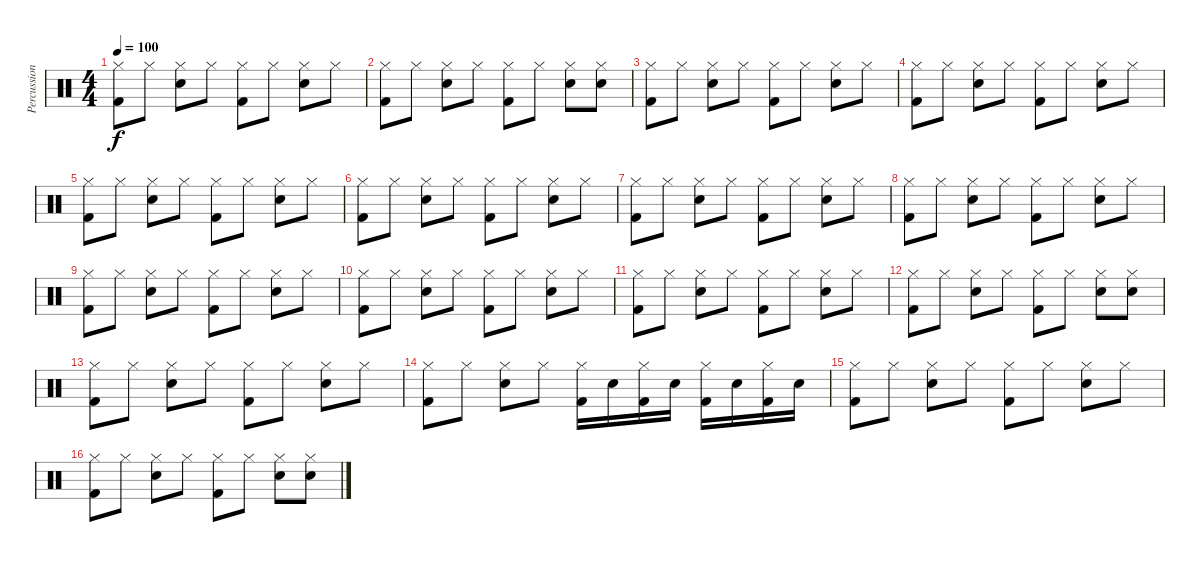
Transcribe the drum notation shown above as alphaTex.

\track ("Percussions" "Percussion") {instrument percussion}
\staff {score}
\articulation defaults
\ts (4 4)
\tempo 100
\clef neutral
\ks c
("Hi-Hat (closed)" "Kick (hit) 2").8{dy f} "Hi-Hat (closed)".8 ("Hi-Hat (closed)" "Snare (hit) 2").8 "Hi-Hat (closed)".8 ("Hi-Hat (closed)" "Kick (hit) 2").8 "Hi-Hat (closed)".8 ("Hi-Hat (closed)" "Snare (hit) 2").8 "Hi-Hat (closed)".8 |
("Hi-Hat (closed)" "Kick (hit) 2").8 "Hi-Hat (closed)".8 ("Hi-Hat (closed)" "Snare (hit) 2").8 "Hi-Hat (closed)".8 ("Hi-Hat (closed)" "Kick (hit) 2").8 "Hi-Hat (closed)".8 ("Hi-Hat (closed)" "Snare (hit) 2").8 ("Hi-Hat (closed)" "Snare (hit) 2").8 |
("Hi-Hat (closed)" "Kick (hit) 2").8 "Hi-Hat (closed)".8 ("Hi-Hat (closed)" "Snare (hit) 2").8 "Hi-Hat (closed)".8 ("Hi-Hat (closed)" "Kick (hit) 2").8 "Hi-Hat (closed)".8 ("Hi-Hat (closed)" "Snare (hit) 2").8 "Hi-Hat (closed)".8 |
("Hi-Hat (closed)" "Kick (hit) 2").8 "Hi-Hat (closed)".8 ("Hi-Hat (closed)" "Snare (hit) 2").8 "Hi-Hat (closed)".8 ("Hi-Hat (closed)" "Kick (hit) 2").8 "Hi-Hat (closed)".8 ("Hi-Hat (closed)" "Snare (hit) 2").8 "Hi-Hat (closed)".8 |
("Hi-Hat (closed)" "Kick (hit) 2").8 "Hi-Hat (closed)".8 ("Hi-Hat (closed)" "Snare (hit) 2").8 "Hi-Hat (closed)".8 ("Hi-Hat (closed)" "Kick (hit) 2").8 "Hi-Hat (closed)".8 ("Hi-Hat (closed)" "Snare (hit) 2").8 "Hi-Hat (closed)".8 |
("Hi-Hat (closed)" "Kick (hit) 2").8 "Hi-Hat (closed)".8 ("Hi-Hat (closed)" "Snare (hit) 2").8 "Hi-Hat (closed)".8 ("Hi-Hat (closed)" "Kick (hit) 2").8 "Hi-Hat (closed)".8 ("Hi-Hat (closed)" "Snare (hit) 2").8 "Hi-Hat (closed)".8 |
("Hi-Hat (closed)" "Kick (hit) 2").8 "Hi-Hat (closed)".8 ("Hi-Hat (closed)" "Snare (hit) 2").8 "Hi-Hat (closed)".8 ("Hi-Hat (closed)" "Kick (hit) 2").8 "Hi-Hat (closed)".8 ("Hi-Hat (closed)" "Snare (hit) 2").8 "Hi-Hat (closed)".8 |
("Hi-Hat (closed)" "Kick (hit) 2").8 "Hi-Hat (closed)".8 ("Hi-Hat (closed)" "Snare (hit) 2").8 "Hi-Hat (closed)".8 ("Hi-Hat (closed)" "Kick (hit) 2").8 "Hi-Hat (closed)".8 ("Hi-Hat (closed)" "Snare (hit) 2").8 "Hi-Hat (closed)".8 |
("Hi-Hat (closed)" "Kick (hit) 2").8 "Hi-Hat (closed)".8 ("Hi-Hat (closed)" "Snare (hit) 2").8 "Hi-Hat (closed)".8 ("Hi-Hat (closed)" "Kick (hit) 2").8 "Hi-Hat (closed)".8 ("Hi-Hat (closed)" "Snare (hit) 2").8 "Hi-Hat (closed)".8 |
("Hi-Hat (closed)" "Kick (hit) 2").8 "Hi-Hat (closed)".8 ("Hi-Hat (closed)" "Snare (hit) 2").8 "Hi-Hat (closed)".8 ("Hi-Hat (closed)" "Kick (hit) 2").8 "Hi-Hat (closed)".8 ("Hi-Hat (closed)" "Snare (hit) 2").8 "Hi-Hat (closed)".8 |
("Hi-Hat (closed)" "Kick (hit) 2").8 "Hi-Hat (closed)".8 ("Hi-Hat (closed)" "Snare (hit) 2").8 "Hi-Hat (closed)".8 ("Hi-Hat (closed)" "Kick (hit) 2").8 "Hi-Hat (closed)".8 ("Hi-Hat (closed)" "Snare (hit) 2").8 "Hi-Hat (closed)".8 |
("Hi-Hat (closed)" "Kick (hit) 2").8 "Hi-Hat (closed)".8 ("Hi-Hat (closed)" "Snare (hit) 2").8 "Hi-Hat (closed)".8 ("Hi-Hat (closed)" "Kick (hit) 2").8 "Hi-Hat (closed)".8 ("Hi-Hat (closed)" "Snare (hit) 2").8 ("Hi-Hat (closed)" "Snare (hit) 2").8 |
("Hi-Hat (closed)" "Kick (hit) 2").8 "Hi-Hat (closed)".8 ("Hi-Hat (closed)" "Snare (hit) 2").8 "Hi-Hat (closed)".8 ("Hi-Hat (closed)" "Kick (hit) 2").8 "Hi-Hat (closed)".8 ("Hi-Hat (closed)" "Snare (hit) 2").8 "Hi-Hat (closed)".8 |
("Hi-Hat (closed)" "Kick (hit) 2").8 "Hi-Hat (closed)".8 ("Hi-Hat (closed)" "Snare (hit) 2").8 "Hi-Hat (closed)".8 ("Kick (hit) 2" "Hi-Hat (closed)").16 "Snare (hit) 2".16 ("Kick (hit) 2" "Hi-Hat (closed)").16 "Snare (hit) 2".16 ("Kick (hit) 2" "Hi-Hat (closed)").16 "Snare (hit) 2".16 ("Kick (hit) 2" "Hi-Hat (closed)").16 "Snare (hit) 2".16 |
("Hi-Hat (closed)" "Kick (hit) 2").8 "Hi-Hat (closed)".8 ("Hi-Hat (closed)" "Snare (hit) 2").8 "Hi-Hat (closed)".8 ("Hi-Hat (closed)" "Kick (hit) 2").8 "Hi-Hat (closed)".8 ("Hi-Hat (closed)" "Snare (hit) 2").8 "Hi-Hat (closed)".8 |
("Hi-Hat (closed)" "Kick (hit) 2").8 "Hi-Hat (closed)".8 ("Hi-Hat (closed)" "Snare (hit) 2").8 "Hi-Hat (closed)".8 ("Hi-Hat (closed)" "Kick (hit) 2").8 "Hi-Hat (closed)".8 ("Hi-Hat (closed)" "Snare (hit) 2").8 ("Hi-Hat (closed)" "Snare (hit) 2").8
